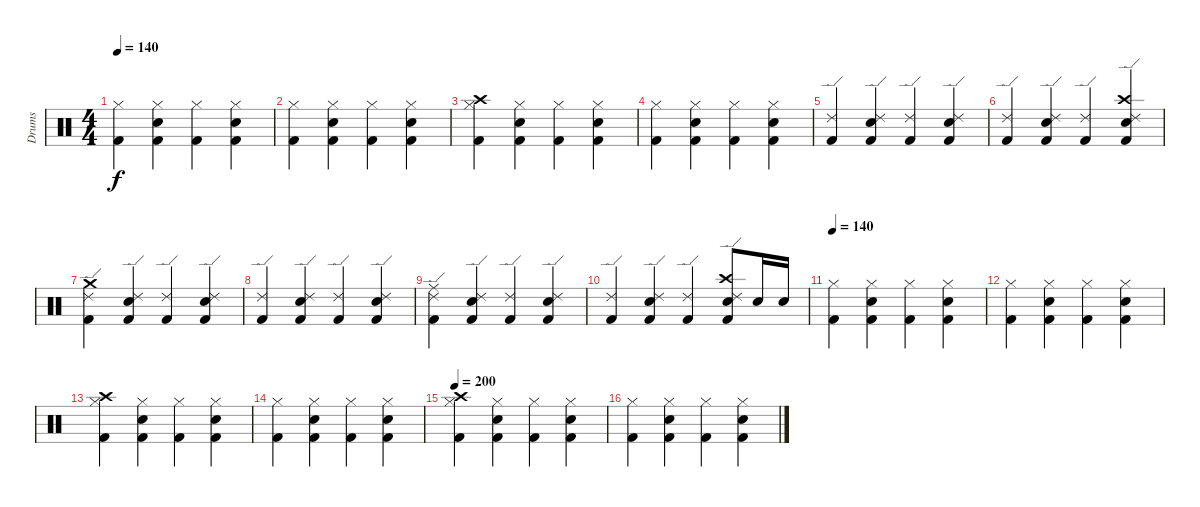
\track ("Drums" "Drums") {instrument percussion}
\staff {score}
\articulation defaults
\ts (4 4)
\tempo 140
\clef neutral
\ks c
("Hi-Hat (closed)" "Kick (hit) 2").4{dy f} ("Hi-Hat (closed)" "Electric Snare (hit)" "Kick (hit) 2").4 ("Hi-Hat (closed)" "Kick (hit) 2").4 ("Hi-Hat (closed)" "Electric Snare (hit)" "Kick (hit) 2").4 |
("Hi-Hat (closed)" "Kick (hit) 2").4 ("Hi-Hat (closed)" "Electric Snare (hit)" "Kick (hit) 2").4 ("Hi-Hat (closed)" "Kick (hit) 2").4 ("Hi-Hat (closed)" "Electric Snare (hit)" "Kick (hit) 2").4 |
("Hi-Hat (closed)" "Crash high (hit)" "Kick (hit) 2").4 ("Hi-Hat (closed)" "Electric Snare (hit)" "Kick (hit) 2").4 ("Hi-Hat (closed)" "Kick (hit) 2").4 ("Hi-Hat (closed)" "Electric Snare (hit)" "Kick (hit) 2").4 |
("Hi-Hat (closed)" "Kick (hit) 2").4 ("Hi-Hat (closed)" "Electric Snare (hit)" "Kick (hit) 2").4 ("Hi-Hat (closed)" "Kick (hit) 2").4 ("Hi-Hat (closed)" "Electric Snare (hit)" "Kick (hit) 2").4 |
("Ride (edge) 2" "Kick (hit) 2").4 ("Ride (edge) 2" "Electric Snare (hit)" "Kick (hit) 2").4 ("Ride (edge) 2" "Kick (hit) 2").4 ("Ride (edge) 2" "Electric Snare (hit)" "Kick (hit) 2").4 |
("Ride (edge) 2" "Kick (hit) 2").4 ("Ride (edge) 2" "Electric Snare (hit)" "Kick (hit) 2").4 ("Ride (edge) 2" "Kick (hit) 2").4 ("Ride (edge) 2" "Crash high (hit)" "Electric Snare (hit)" "Kick (hit) 2").4 |
("Ride (edge) 2" "Crash medium (hit)" "Kick (hit) 2").4 ("Ride (edge) 2" "Electric Snare (hit)" "Kick (hit) 2").4 ("Ride (edge) 2" "Kick (hit) 2").4 ("Ride (edge) 2" "Electric Snare (hit)" "Kick (hit) 2").4 |
("Ride (edge) 2" "Kick (hit) 2").4 ("Ride (edge) 2" "Electric Snare (hit)" "Kick (hit) 2").4 ("Ride (edge) 2" "Kick (hit) 2").4 ("Ride (edge) 2" "Electric Snare (hit)" "Kick (hit) 2").4 |
("Ride (edge) 2" "Ride (middle)" "Kick (hit) 2").4 ("Ride (edge) 2" "Electric Snare (hit)" "Kick (hit) 2").4 ("Ride (edge) 2" "Kick (hit) 2").4 ("Ride (edge) 2" "Electric Snare (hit)" "Kick (hit) 2").4 |
("Ride (edge) 2" "Kick (hit) 2").4 ("Ride (edge) 2" "Electric Snare (hit)" "Kick (hit) 2").4 ("Ride (edge) 2" "Kick (hit) 2").4 ("Ride (edge) 2" "Crash high (hit)" "Electric Snare (hit)" "Kick (hit) 2").8 "Electric Snare (hit)".16 "Electric Snare (hit)".16 |
\tempo 140
("Hi-Hat (closed)" "Kick (hit) 2").4 ("Hi-Hat (closed)" "Electric Snare (hit)" "Kick (hit) 2").4 ("Hi-Hat (closed)" "Kick (hit) 2").4 ("Hi-Hat (closed)" "Electric Snare (hit)" "Kick (hit) 2").4 |
("Hi-Hat (closed)" "Kick (hit) 2").4 ("Hi-Hat (closed)" "Electric Snare (hit)" "Kick (hit) 2").4 ("Hi-Hat (closed)" "Kick (hit) 2").4 ("Hi-Hat (closed)" "Electric Snare (hit)" "Kick (hit) 2").4 |
("Hi-Hat (closed)" "Crash high (hit)" "Kick (hit) 2").4 ("Hi-Hat (closed)" "Electric Snare (hit)" "Kick (hit) 2").4 ("Hi-Hat (closed)" "Kick (hit) 2").4 ("Hi-Hat (closed)" "Electric Snare (hit)" "Kick (hit) 2").4 |
("Hi-Hat (closed)" "Kick (hit) 2").4 ("Hi-Hat (closed)" "Electric Snare (hit)" "Kick (hit) 2").4 ("Hi-Hat (closed)" "Kick (hit) 2").4 ("Hi-Hat (closed)" "Electric Snare (hit)" "Kick (hit) 2").4 |
\tempo 200
("Hi-Hat (closed)" "Crash high (hit)" "Kick (hit) 2").4 ("Hi-Hat (closed)" "Electric Snare (hit)" "Kick (hit) 2").4 ("Hi-Hat (closed)" "Kick (hit) 2").4 ("Hi-Hat (closed)" "Electric Snare (hit)" "Kick (hit) 2").4 |
("Hi-Hat (closed)" "Kick (hit) 2").4 ("Hi-Hat (closed)" "Electric Snare (hit)" "Kick (hit) 2").4 ("Hi-Hat (closed)" "Kick (hit) 2").4 ("Hi-Hat (closed)" "Electric Snare (hit)" "Kick (hit) 2").4
